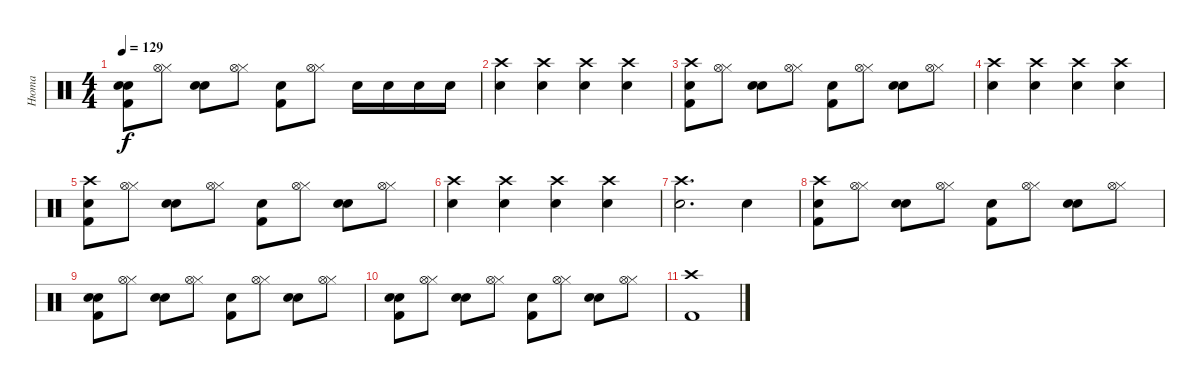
\track ("Нюта" "Нюта") {instrument percussion}
\staff {score}
\articulation defaults
\ts (4 4)
\tempo 129
\clef neutral
\ks c
("Snare (hit)" "Kick (hit) 2" "Snare (hit)").8{dy f} ("Hi-Hat (closed)" "Hi-Hat (open)").8 ("Snare (hit)" "Electric Snare (hit)").8 ("Hi-Hat (closed)" "Hi-Hat (open)").8 ("Snare (hit)" "Kick (hit) 2").8 ("Hi-Hat (closed)" "Hi-Hat (open)").8 "Electric Snare (hit)".16 "Electric Snare (hit)".16 "Electric Snare (hit)".16 "Electric Snare (hit)".16 |
("Electric Snare (hit)" "Crash high (hit)").4 ("Electric Snare (hit)" "Crash high (hit)").4 ("Electric Snare (hit)" "Crash high (hit)").4 ("Electric Snare (hit)" "Crash high (hit)").4 |
("Snare (hit)" "Kick (hit) 2" "Crash high (hit)").8 ("Hi-Hat (closed)" "Hi-Hat (open)").8 ("Snare (hit)" "Electric Snare (hit)").8 ("Hi-Hat (closed)" "Hi-Hat (open)").8 ("Snare (hit)" "Kick (hit) 2").8 ("Hi-Hat (closed)" "Hi-Hat (open)").8 ("Snare (hit)" "Electric Snare (hit)").8 ("Hi-Hat (closed)" "Hi-Hat (open)").8 |
("Electric Snare (hit)" "Crash high (hit)").4 ("Electric Snare (hit)" "Crash high (hit)").4 ("Electric Snare (hit)" "Crash high (hit)").4 ("Electric Snare (hit)" "Crash high (hit)").4 |
("Snare (hit)" "Kick (hit) 2" "Crash high (hit)").8 ("Hi-Hat (closed)" "Hi-Hat (open)").8 ("Snare (hit)" "Electric Snare (hit)").8 ("Hi-Hat (closed)" "Hi-Hat (open)").8 ("Snare (hit)" "Kick (hit) 2").8 ("Hi-Hat (closed)" "Hi-Hat (open)").8 ("Snare (hit)" "Electric Snare (hit)").8 ("Hi-Hat (closed)" "Hi-Hat (open)").8 |
("Electric Snare (hit)" "Crash high (hit)").4 ("Electric Snare (hit)" "Crash high (hit)").4 ("Electric Snare (hit)" "Crash high (hit)").4 ("Electric Snare (hit)" "Crash high (hit)").4 |
("Electric Snare (hit)" "Crash high (hit)").2{d} "Electric Snare (hit)".4 |
("Snare (hit)" "Kick (hit) 2" "Crash high (hit)").8 ("Hi-Hat (closed)" "Hi-Hat (open)").8 ("Snare (hit)" "Electric Snare (hit)").8 ("Hi-Hat (closed)" "Hi-Hat (open)").8 ("Snare (hit)" "Kick (hit) 2").8 ("Hi-Hat (closed)" "Hi-Hat (open)").8 ("Snare (hit)" "Electric Snare (hit)").8 ("Hi-Hat (closed)" "Hi-Hat (open)").8 |
("Snare (hit)" "Kick (hit) 2" "Snare (hit)").8 ("Hi-Hat (closed)" "Hi-Hat (open)").8 ("Snare (hit)" "Electric Snare (hit)").8 ("Hi-Hat (closed)" "Hi-Hat (open)").8 ("Snare (hit)" "Kick (hit) 2").8 ("Hi-Hat (closed)" "Hi-Hat (open)").8 ("Snare (hit)" "Electric Snare (hit)").8 ("Hi-Hat (closed)" "Hi-Hat (open)").8 |
("Snare (hit)" "Kick (hit) 2" "Snare (hit)").8 ("Hi-Hat (closed)" "Hi-Hat (open)").8 ("Snare (hit)" "Electric Snare (hit)").8 ("Hi-Hat (closed)" "Hi-Hat (open)").8 ("Snare (hit)" "Kick (hit) 2").8 ("Hi-Hat (closed)" "Hi-Hat (open)").8 ("Snare (hit)" "Electric Snare (hit)").8 ("Hi-Hat (closed)" "Hi-Hat (open)").8 |
("Crash high (hit)" "Kick (hit) 2").1
